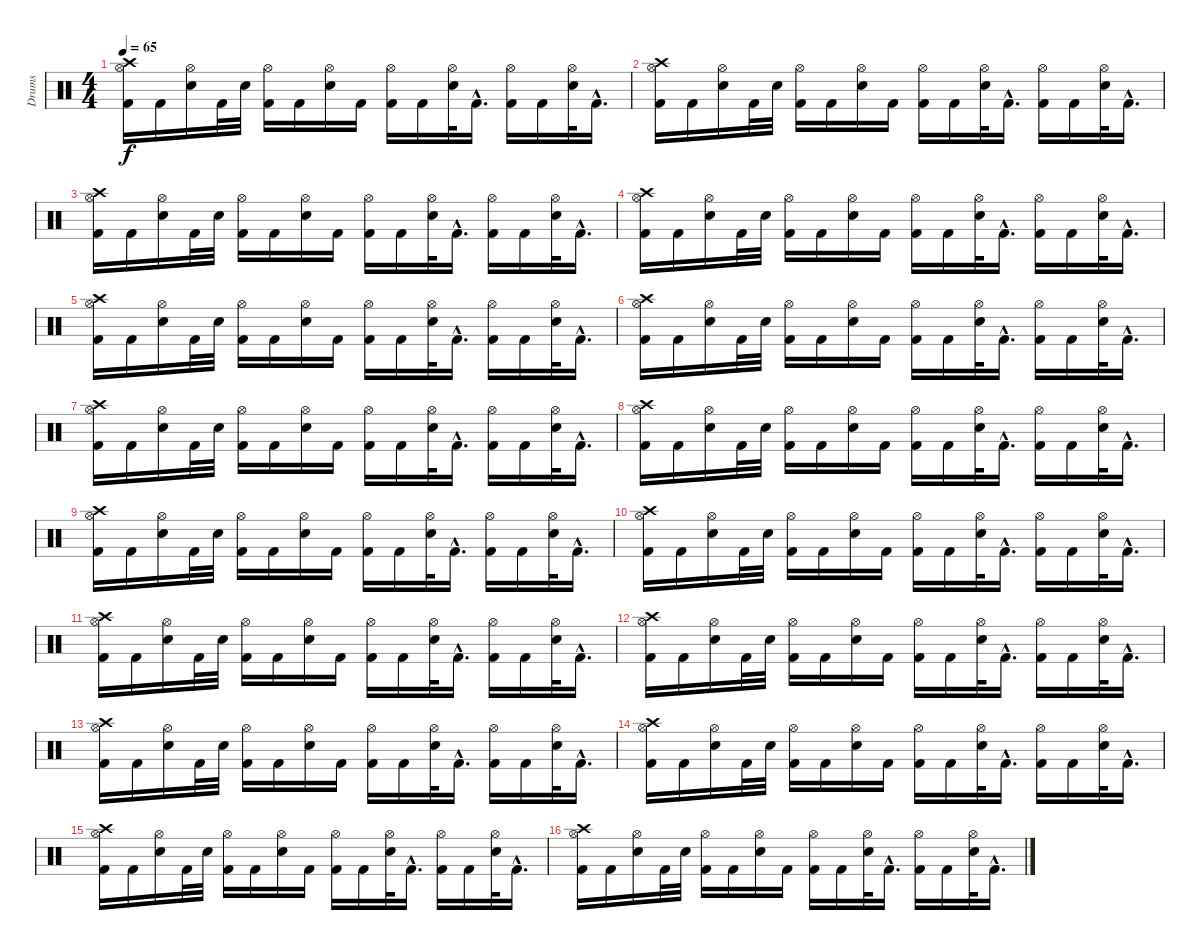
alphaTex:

\track ("Drums" "Drums") {instrument percussion}
\staff {score}
\articulation defaults
\ts (4 4)
\tempo 65
\clef neutral
\ks c
("Crash high (hit)" "Hi-Hat (open)" "Kick (hit) 2").16{dy f} "Kick (hit) 2".16 ("Hi-Hat (open)" "Snare (hit) 2").16 "Kick (hit) 2".32 "Snare (hit) 2".32 ("Hi-Hat (open)" "Kick (hit) 2").16 "Kick (hit) 2".16 ("Hi-Hat (open)" "Snare (hit) 2").16 "Kick (hit) 2".16 ("Hi-Hat (open)" "Kick (hit) 2").16 "Kick (hit) 2".16 ("Hi-Hat (open)" "Snare (hit) 2").32 "Kick (hit) 2"{hac}.16{d} ("Hi-Hat (open)" "Kick (hit) 2").16 "Kick (hit) 2".16 ("Hi-Hat (open)" "Snare (hit) 2").32 "Kick (hit) 2"{hac}.16{d} |
("Crash high (hit)" "Hi-Hat (open)" "Kick (hit) 2").16 "Kick (hit) 2".16 ("Hi-Hat (open)" "Snare (hit) 2").16 "Kick (hit) 2".32 "Snare (hit) 2".32 ("Hi-Hat (open)" "Kick (hit) 2").16 "Kick (hit) 2".16 ("Hi-Hat (open)" "Snare (hit) 2").16 "Kick (hit) 2".16 ("Hi-Hat (open)" "Kick (hit) 2").16 "Kick (hit) 2".16 ("Hi-Hat (open)" "Snare (hit) 2").32 "Kick (hit) 2"{hac}.16{d} ("Hi-Hat (open)" "Kick (hit) 2").16 "Kick (hit) 2".16 ("Hi-Hat (open)" "Snare (hit) 2").32 "Kick (hit) 2"{hac}.16{d} |
("Crash high (hit)" "Hi-Hat (open)" "Kick (hit) 2").16 "Kick (hit) 2".16 ("Hi-Hat (open)" "Snare (hit) 2").16 "Kick (hit) 2".32 "Snare (hit) 2".32 ("Hi-Hat (open)" "Kick (hit) 2").16 "Kick (hit) 2".16 ("Hi-Hat (open)" "Snare (hit) 2").16 "Kick (hit) 2".16 ("Hi-Hat (open)" "Kick (hit) 2").16 "Kick (hit) 2".16 ("Hi-Hat (open)" "Snare (hit) 2").32 "Kick (hit) 2"{hac}.16{d} ("Hi-Hat (open)" "Kick (hit) 2").16 "Kick (hit) 2".16 ("Hi-Hat (open)" "Snare (hit) 2").32 "Kick (hit) 2"{hac}.16{d} |
("Crash high (hit)" "Hi-Hat (open)" "Kick (hit) 2").16 "Kick (hit) 2".16 ("Hi-Hat (open)" "Snare (hit) 2").16 "Kick (hit) 2".32 "Snare (hit) 2".32 ("Hi-Hat (open)" "Kick (hit) 2").16 "Kick (hit) 2".16 ("Hi-Hat (open)" "Snare (hit) 2").16 "Kick (hit) 2".16 ("Hi-Hat (open)" "Kick (hit) 2").16 "Kick (hit) 2".16 ("Hi-Hat (open)" "Snare (hit) 2").32 "Kick (hit) 2"{hac}.16{d} ("Hi-Hat (open)" "Kick (hit) 2").16 "Kick (hit) 2".16 ("Hi-Hat (open)" "Snare (hit) 2").32 "Kick (hit) 2"{hac}.16{d} |
("Crash high (hit)" "Hi-Hat (open)" "Kick (hit) 2").16 "Kick (hit) 2".16 ("Hi-Hat (open)" "Snare (hit) 2").16 "Kick (hit) 2".32 "Snare (hit) 2".32 ("Hi-Hat (open)" "Kick (hit) 2").16 "Kick (hit) 2".16 ("Hi-Hat (open)" "Snare (hit) 2").16 "Kick (hit) 2".16 ("Hi-Hat (open)" "Kick (hit) 2").16 "Kick (hit) 2".16 ("Hi-Hat (open)" "Snare (hit) 2").32 "Kick (hit) 2"{hac}.16{d} ("Hi-Hat (open)" "Kick (hit) 2").16 "Kick (hit) 2".16 ("Hi-Hat (open)" "Snare (hit) 2").32 "Kick (hit) 2"{hac}.16{d} |
("Crash high (hit)" "Hi-Hat (open)" "Kick (hit) 2").16 "Kick (hit) 2".16 ("Hi-Hat (open)" "Snare (hit) 2").16 "Kick (hit) 2".32 "Snare (hit) 2".32 ("Hi-Hat (open)" "Kick (hit) 2").16 "Kick (hit) 2".16 ("Hi-Hat (open)" "Snare (hit) 2").16 "Kick (hit) 2".16 ("Hi-Hat (open)" "Kick (hit) 2").16 "Kick (hit) 2".16 ("Hi-Hat (open)" "Snare (hit) 2").32 "Kick (hit) 2"{hac}.16{d} ("Hi-Hat (open)" "Kick (hit) 2").16 "Kick (hit) 2".16 ("Hi-Hat (open)" "Snare (hit) 2").32 "Kick (hit) 2"{hac}.16{d} |
("Crash high (hit)" "Hi-Hat (open)" "Kick (hit) 2").16 "Kick (hit) 2".16 ("Hi-Hat (open)" "Snare (hit) 2").16 "Kick (hit) 2".32 "Snare (hit) 2".32 ("Hi-Hat (open)" "Kick (hit) 2").16 "Kick (hit) 2".16 ("Hi-Hat (open)" "Snare (hit) 2").16 "Kick (hit) 2".16 ("Hi-Hat (open)" "Kick (hit) 2").16 "Kick (hit) 2".16 ("Hi-Hat (open)" "Snare (hit) 2").32 "Kick (hit) 2"{hac}.16{d} ("Hi-Hat (open)" "Kick (hit) 2").16 "Kick (hit) 2".16 ("Hi-Hat (open)" "Snare (hit) 2").32 "Kick (hit) 2"{hac}.16{d} |
("Crash high (hit)" "Hi-Hat (open)" "Kick (hit) 2").16 "Kick (hit) 2".16 ("Hi-Hat (open)" "Snare (hit) 2").16 "Kick (hit) 2".32 "Snare (hit) 2".32 ("Hi-Hat (open)" "Kick (hit) 2").16 "Kick (hit) 2".16 ("Hi-Hat (open)" "Snare (hit) 2").16 "Kick (hit) 2".16 ("Hi-Hat (open)" "Kick (hit) 2").16 "Kick (hit) 2".16 ("Hi-Hat (open)" "Snare (hit) 2").32 "Kick (hit) 2"{hac}.16{d} ("Hi-Hat (open)" "Kick (hit) 2").16 "Kick (hit) 2".16 ("Hi-Hat (open)" "Snare (hit) 2").32 "Kick (hit) 2"{hac}.16{d} |
("Crash high (hit)" "Hi-Hat (open)" "Kick (hit) 2").16 "Kick (hit) 2".16 ("Hi-Hat (open)" "Snare (hit) 2").16 "Kick (hit) 2".32 "Snare (hit) 2".32 ("Hi-Hat (open)" "Kick (hit) 2").16 "Kick (hit) 2".16 ("Hi-Hat (open)" "Snare (hit) 2").16 "Kick (hit) 2".16 ("Hi-Hat (open)" "Kick (hit) 2").16 "Kick (hit) 2".16 ("Hi-Hat (open)" "Snare (hit) 2").32 "Kick (hit) 2"{hac}.16{d} ("Hi-Hat (open)" "Kick (hit) 2").16 "Kick (hit) 2".16 ("Hi-Hat (open)" "Snare (hit) 2").32 "Kick (hit) 2"{hac}.16{d} |
("Crash high (hit)" "Hi-Hat (open)" "Kick (hit) 2").16 "Kick (hit) 2".16 ("Hi-Hat (open)" "Snare (hit) 2").16 "Kick (hit) 2".32 "Snare (hit) 2".32 ("Hi-Hat (open)" "Kick (hit) 2").16 "Kick (hit) 2".16 ("Hi-Hat (open)" "Snare (hit) 2").16 "Kick (hit) 2".16 ("Hi-Hat (open)" "Kick (hit) 2").16 "Kick (hit) 2".16 ("Hi-Hat (open)" "Snare (hit) 2").32 "Kick (hit) 2"{hac}.16{d} ("Hi-Hat (open)" "Kick (hit) 2").16 "Kick (hit) 2".16 ("Hi-Hat (open)" "Snare (hit) 2").32 "Kick (hit) 2"{hac}.16{d} |
("Crash high (hit)" "Hi-Hat (open)" "Kick (hit) 2").16 "Kick (hit) 2".16 ("Hi-Hat (open)" "Snare (hit) 2").16 "Kick (hit) 2".32 "Snare (hit) 2".32 ("Hi-Hat (open)" "Kick (hit) 2").16 "Kick (hit) 2".16 ("Hi-Hat (open)" "Snare (hit) 2").16 "Kick (hit) 2".16 ("Hi-Hat (open)" "Kick (hit) 2").16 "Kick (hit) 2".16 ("Hi-Hat (open)" "Snare (hit) 2").32 "Kick (hit) 2"{hac}.16{d} ("Hi-Hat (open)" "Kick (hit) 2").16 "Kick (hit) 2".16 ("Hi-Hat (open)" "Snare (hit) 2").32 "Kick (hit) 2"{hac}.16{d} |
("Crash high (hit)" "Hi-Hat (open)" "Kick (hit) 2").16 "Kick (hit) 2".16 ("Hi-Hat (open)" "Snare (hit) 2").16 "Kick (hit) 2".32 "Snare (hit) 2".32 ("Hi-Hat (open)" "Kick (hit) 2").16 "Kick (hit) 2".16 ("Hi-Hat (open)" "Snare (hit) 2").16 "Kick (hit) 2".16 ("Hi-Hat (open)" "Kick (hit) 2").16 "Kick (hit) 2".16 ("Hi-Hat (open)" "Snare (hit) 2").32 "Kick (hit) 2"{hac}.16{d} ("Hi-Hat (open)" "Kick (hit) 2").16 "Kick (hit) 2".16 ("Hi-Hat (open)" "Snare (hit) 2").32 "Kick (hit) 2"{hac}.16{d} |
("Crash high (hit)" "Hi-Hat (open)" "Kick (hit) 2").16 "Kick (hit) 2".16 ("Hi-Hat (open)" "Snare (hit) 2").16 "Kick (hit) 2".32 "Snare (hit) 2".32 ("Hi-Hat (open)" "Kick (hit) 2").16 "Kick (hit) 2".16 ("Hi-Hat (open)" "Snare (hit) 2").16 "Kick (hit) 2".16 ("Hi-Hat (open)" "Kick (hit) 2").16 "Kick (hit) 2".16 ("Hi-Hat (open)" "Snare (hit) 2").32 "Kick (hit) 2"{hac}.16{d} ("Hi-Hat (open)" "Kick (hit) 2").16 "Kick (hit) 2".16 ("Hi-Hat (open)" "Snare (hit) 2").32 "Kick (hit) 2"{hac}.16{d} |
("Crash high (hit)" "Hi-Hat (open)" "Kick (hit) 2").16 "Kick (hit) 2".16 ("Hi-Hat (open)" "Snare (hit) 2").16 "Kick (hit) 2".32 "Snare (hit) 2".32 ("Hi-Hat (open)" "Kick (hit) 2").16 "Kick (hit) 2".16 ("Hi-Hat (open)" "Snare (hit) 2").16 "Kick (hit) 2".16 ("Hi-Hat (open)" "Kick (hit) 2").16 "Kick (hit) 2".16 ("Hi-Hat (open)" "Snare (hit) 2").32 "Kick (hit) 2"{hac}.16{d} ("Hi-Hat (open)" "Kick (hit) 2").16 "Kick (hit) 2".16 ("Hi-Hat (open)" "Snare (hit) 2").32 "Kick (hit) 2"{hac}.16{d} |
("Crash high (hit)" "Hi-Hat (open)" "Kick (hit) 2").16 "Kick (hit) 2".16 ("Hi-Hat (open)" "Snare (hit) 2").16 "Kick (hit) 2".32 "Snare (hit) 2".32 ("Hi-Hat (open)" "Kick (hit) 2").16 "Kick (hit) 2".16 ("Hi-Hat (open)" "Snare (hit) 2").16 "Kick (hit) 2".16 ("Hi-Hat (open)" "Kick (hit) 2").16 "Kick (hit) 2".16 ("Hi-Hat (open)" "Snare (hit) 2").32 "Kick (hit) 2"{hac}.16{d} ("Hi-Hat (open)" "Kick (hit) 2").16 "Kick (hit) 2".16 ("Hi-Hat (open)" "Snare (hit) 2").32 "Kick (hit) 2"{hac}.16{d} |
("Crash high (hit)" "Hi-Hat (open)" "Kick (hit) 2").16 "Kick (hit) 2".16 ("Hi-Hat (open)" "Snare (hit) 2").16 "Kick (hit) 2".32 "Snare (hit) 2".32 ("Hi-Hat (open)" "Kick (hit) 2").16 "Kick (hit) 2".16 ("Hi-Hat (open)" "Snare (hit) 2").16 "Kick (hit) 2".16 ("Hi-Hat (open)" "Kick (hit) 2").16 "Kick (hit) 2".16 ("Hi-Hat (open)" "Snare (hit) 2").32 "Kick (hit) 2"{hac}.16{d} ("Hi-Hat (open)" "Kick (hit) 2").16 "Kick (hit) 2".16 ("Hi-Hat (open)" "Snare (hit) 2").32 "Kick (hit) 2"{hac}.16{d}
